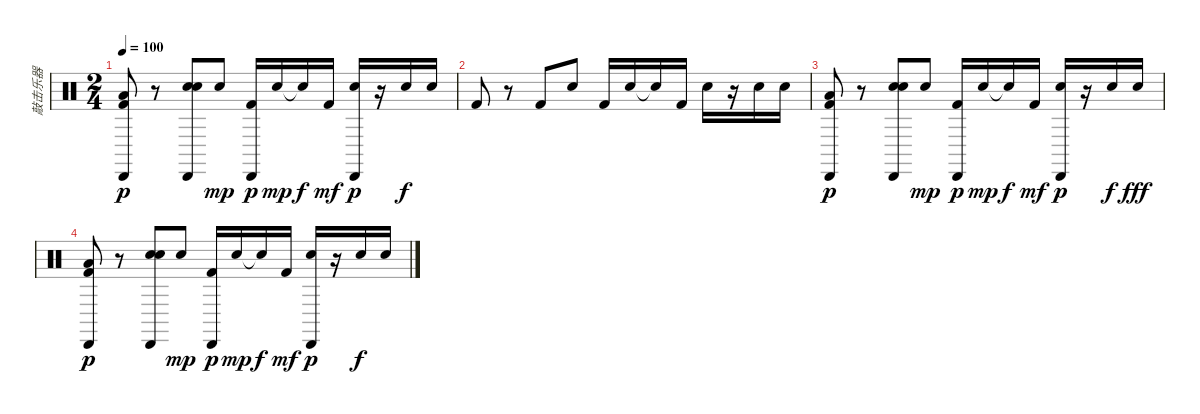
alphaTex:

\track ("敲击乐器" "敲击乐器") {instrument percussion}
\staff {score}
\articulation defaults
\ts (2 4)
\tempo 100
\clef neutral
\ks c
("Kick (hit) 2" "Low Floor Tom (hit)" "Cabasa (hit)").8{dy p} r.8 ("Snare (hit) 2" "Electric Snare (hit)" "Cabasa (hit)").8 "Snare (hit) 2".8{dy mp} ("Kick (hit) 2" "Cabasa (hit)").16{dy p} "Snare (hit) 2".16{dy mp} "Snare (hit) 2"{t}.16{dy f} "Kick (hit) 2".16{dy mf} ("Snare (hit) 2" "Cabasa (hit)").16{dy p} r.16 "Electric Snare (hit)".16{dy f} "Snare (hit) 2".16 |
"Kick (hit) 2".8 r.8 "Kick (hit) 2".8 "Snare (hit) 2".8 "Kick (hit) 2".16 "Snare (hit) 2".16 "Snare (hit) 2"{t}.16 "Kick (hit) 2".16 "Snare (hit) 2".16 r.16 "Electric Snare (hit)".16 "Snare (hit) 2".16 |
("Kick (hit) 2" "Low Floor Tom (hit)" "Cabasa (hit)").8{dy p} r.8 ("Snare (hit) 2" "Electric Snare (hit)" "Cabasa (hit)").8 "Snare (hit) 2".8{dy mp} ("Kick (hit) 2" "Cabasa (hit)").16{dy p} "Snare (hit) 2".16{dy mp} "Snare (hit) 2"{t}.16{dy f} "Kick (hit) 2".16{dy mf} ("Snare (hit) 2" "Cabasa (hit)").16{dy p} r.16 "Electric Snare (hit)".16{dy f} "Snare (hit) 2".16{dy fff} |
("Kick (hit) 2" "Low Floor Tom (hit)" "Cabasa (hit)").8{dy p} r.8 ("Snare (hit) 2" "Electric Snare (hit)" "Cabasa (hit)").8 "Snare (hit) 2".8{dy mp} ("Kick (hit) 2" "Cabasa (hit)").16{dy p} "Snare (hit) 2".16{dy mp} "Snare (hit) 2"{t}.16{dy f} "Kick (hit) 2".16{dy mf} ("Snare (hit) 2" "Cabasa (hit)").16{dy p} r.16 "Electric Snare (hit)".16{dy f} "Snare (hit) 2".16
